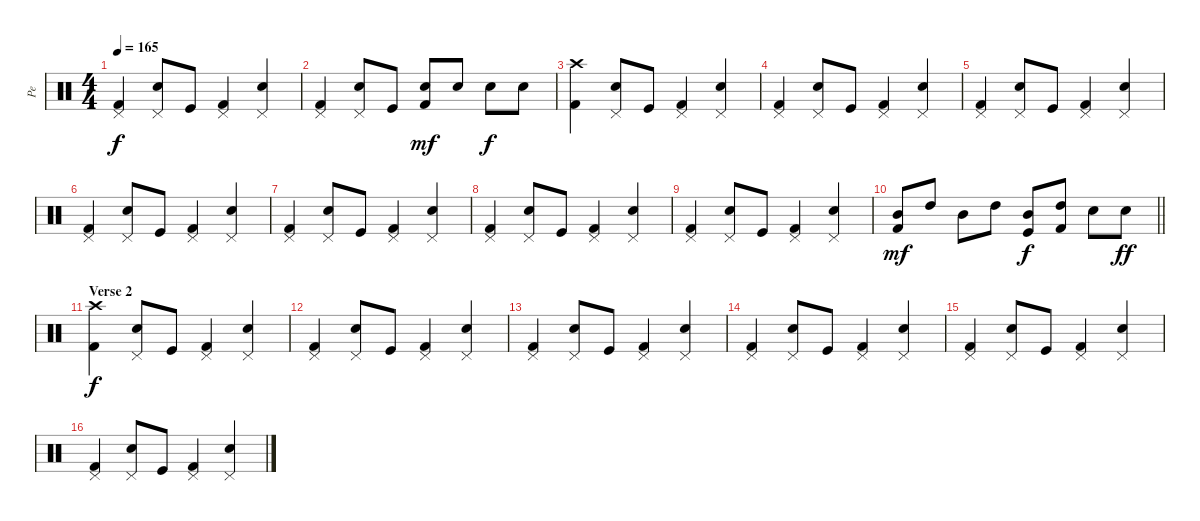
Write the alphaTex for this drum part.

\track ("Pe" "Pe") {instrument percussion}
\staff {score}
\articulation defaults
\ts (4 4)
\tempo 165
\clef neutral
\ks c
("Kick (hit) 2" "Pedal Hi-Hat (hit)").4{dy f} ("Electric Snare (hit)" "Pedal Hi-Hat (hit)").8 "Kick (hit)".8 ("Kick (hit) 2" "Pedal Hi-Hat (hit)").4 ("Electric Snare (hit)" "Pedal Hi-Hat (hit)").4 |
("Kick (hit) 2" "Pedal Hi-Hat (hit)").4 ("Electric Snare (hit)" "Pedal Hi-Hat (hit)").8 "Kick (hit)".8 ("Kick (hit) 2" "Electric Snare (hit)").8{dy mf} "Electric Snare (hit)".8 "Electric Snare (hit)".8{dy f} "Electric Snare (hit)".8 |
("Kick (hit) 2" "Crash high (hit)").4 ("Electric Snare (hit)" "Pedal Hi-Hat (hit)").8 "Kick (hit)".8 ("Kick (hit) 2" "Pedal Hi-Hat (hit)").4 ("Electric Snare (hit)" "Pedal Hi-Hat (hit)").4 |
("Kick (hit) 2" "Pedal Hi-Hat (hit)").4 ("Electric Snare (hit)" "Pedal Hi-Hat (hit)").8 "Kick (hit)".8 ("Kick (hit) 2" "Pedal Hi-Hat (hit)").4 ("Electric Snare (hit)" "Pedal Hi-Hat (hit)").4 |
("Kick (hit) 2" "Pedal Hi-Hat (hit)").4 ("Electric Snare (hit)" "Pedal Hi-Hat (hit)").8 "Kick (hit)".8 ("Kick (hit) 2" "Pedal Hi-Hat (hit)").4 ("Electric Snare (hit)" "Pedal Hi-Hat (hit)").4 |
("Kick (hit) 2" "Pedal Hi-Hat (hit)").4 ("Electric Snare (hit)" "Pedal Hi-Hat (hit)").8 "Kick (hit)".8 ("Kick (hit) 2" "Pedal Hi-Hat (hit)").4 ("Electric Snare (hit)" "Pedal Hi-Hat (hit)").4 |
("Kick (hit) 2" "Pedal Hi-Hat (hit)").4 ("Electric Snare (hit)" "Pedal Hi-Hat (hit)").8 "Kick (hit)".8 ("Kick (hit) 2" "Pedal Hi-Hat (hit)").4 ("Electric Snare (hit)" "Pedal Hi-Hat (hit)").4 |
("Kick (hit) 2" "Pedal Hi-Hat (hit)").4 ("Electric Snare (hit)" "Pedal Hi-Hat (hit)").8 "Kick (hit)".8 ("Kick (hit) 2" "Pedal Hi-Hat (hit)").4 ("Electric Snare (hit)" "Pedal Hi-Hat (hit)").4 |
("Kick (hit) 2" "Pedal Hi-Hat (hit)").4 ("Electric Snare (hit)" "Pedal Hi-Hat (hit)").8 "Kick (hit)".8 ("Kick (hit) 2" "Pedal Hi-Hat (hit)").4 ("Electric Snare (hit)" "Pedal Hi-Hat (hit)").4 |
\barLineRight lightlight
("Kick (hit) 2" "Mid Tom (hit)").8{dy mf} "High Tom (hit)".8 "Mid Tom (hit)".8 "High Tom (hit)".8 ("Kick (hit)" "Mid Tom (hit)").8{dy f} ("Kick (hit) 2" "High Tom (hit)").8 "Electric Snare (hit)".8 "Electric Snare (hit)".8{dy ff} |
\section ("" "Verse 2")
("Kick (hit) 2" "Crash high (hit)").4{dy f} ("Electric Snare (hit)" "Pedal Hi-Hat (hit)").8 "Kick (hit)".8 ("Kick (hit) 2" "Pedal Hi-Hat (hit)").4 ("Electric Snare (hit)" "Pedal Hi-Hat (hit)").4 |
("Kick (hit) 2" "Pedal Hi-Hat (hit)").4 ("Electric Snare (hit)" "Pedal Hi-Hat (hit)").8 "Kick (hit)".8 ("Kick (hit) 2" "Pedal Hi-Hat (hit)").4 ("Electric Snare (hit)" "Pedal Hi-Hat (hit)").4 |
("Kick (hit) 2" "Pedal Hi-Hat (hit)").4 ("Electric Snare (hit)" "Pedal Hi-Hat (hit)").8 "Kick (hit)".8 ("Kick (hit) 2" "Pedal Hi-Hat (hit)").4 ("Electric Snare (hit)" "Pedal Hi-Hat (hit)").4 |
("Kick (hit) 2" "Pedal Hi-Hat (hit)").4 ("Electric Snare (hit)" "Pedal Hi-Hat (hit)").8 "Kick (hit)".8 ("Kick (hit) 2" "Pedal Hi-Hat (hit)").4 ("Electric Snare (hit)" "Pedal Hi-Hat (hit)").4 |
("Kick (hit) 2" "Pedal Hi-Hat (hit)").4 ("Electric Snare (hit)" "Pedal Hi-Hat (hit)").8 "Kick (hit)".8 ("Kick (hit) 2" "Pedal Hi-Hat (hit)").4 ("Electric Snare (hit)" "Pedal Hi-Hat (hit)").4 |
("Kick (hit) 2" "Pedal Hi-Hat (hit)").4 ("Electric Snare (hit)" "Pedal Hi-Hat (hit)").8 "Kick (hit)".8 ("Kick (hit) 2" "Pedal Hi-Hat (hit)").4 ("Electric Snare (hit)" "Pedal Hi-Hat (hit)").4
